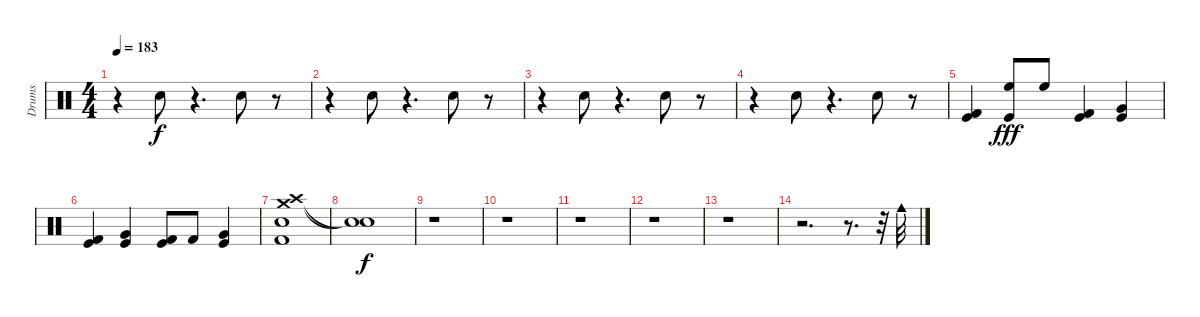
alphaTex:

\track ("Drums" "Drums") {instrument percussion}
\staff {score}
\articulation defaults
\ts (4 4)
\tempo 183
\clef neutral
\ks c
r.4{dy f} "Hand Clap (hit)".8 r.4{d} "Hand Clap (hit)".8 r.8 |
r.4 "Hand Clap (hit)".8 r.4{d} "Hand Clap (hit)".8 r.8 |
r.4 "Hand Clap (hit)".8 r.4{d} "Hand Clap (hit)".8 r.8 |
r.4 "Hand Clap (hit)".8 r.4{d} "Hand Clap (hit)".8 r.8 |
("Kick (hit)" "Kick (hit) 2").4 ("High Floor Tom (hit)" "Kick (hit)").8{dy fff} "High Floor Tom (hit)".8 ("Kick (hit) 2" "Kick (hit)").4 ("Very Low Tom (hit)" "Kick (hit)").4 |
("Kick (hit) 2" "Kick (hit)").4 ("Very Low Tom (hit)" "Kick (hit)").4 ("Kick (hit) 2" "Kick (hit)").8 "Kick (hit) 2".8 ("Very Low Tom (hit)" "Kick (hit)").4 |
("Crash medium (hit)" "Crash high (hit)" "Kick (hit) 2" "Snare (hit) 2").1 |
("Snare (hit)"{t} "Snare (hit)"{t}).1{dy f} |
r.1 |
r.1 |
r.1 |
r.1 |
r.1 |
r.2{d} r.8{d} r.32 "Cowbell medium (hit)".32
